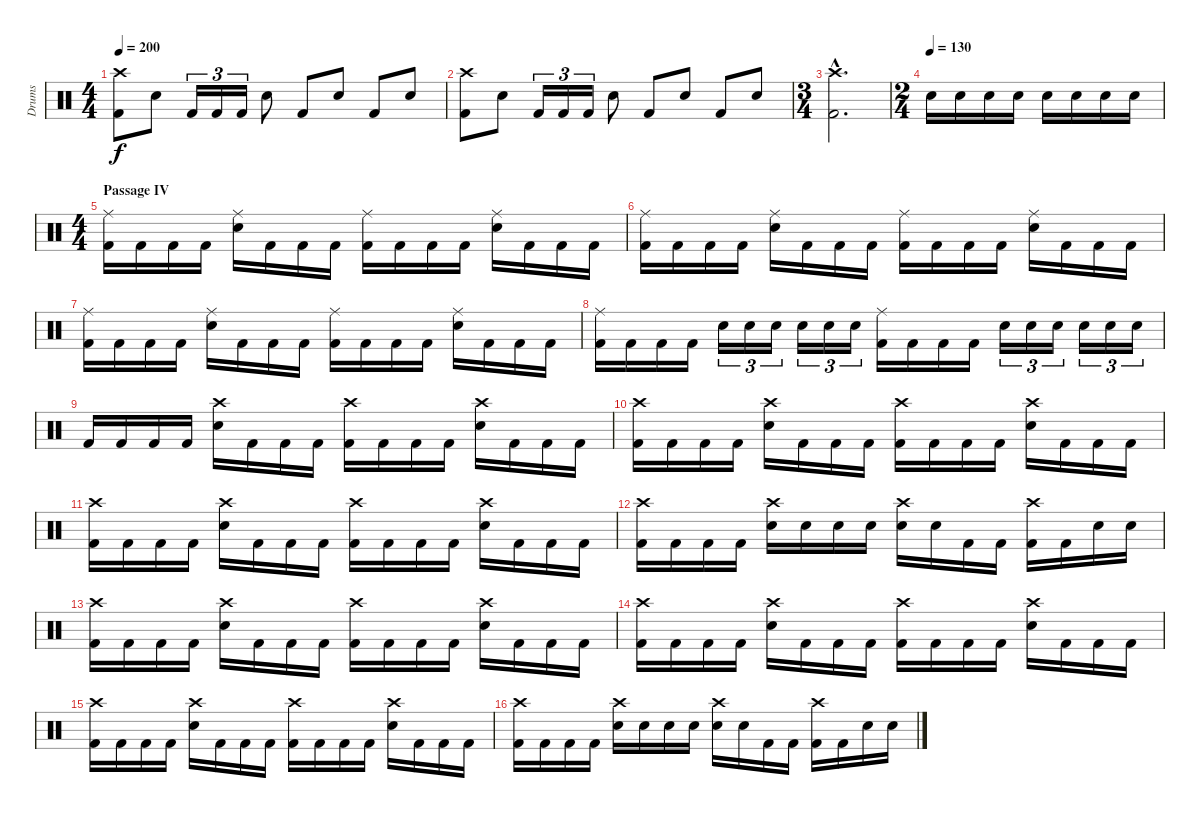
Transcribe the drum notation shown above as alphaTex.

\track ("Drums" "Drums") {instrument percussion}
\staff {score}
\articulation defaults
\ts (4 4)
\tempo 200
\clef neutral
\ks c
("Crash high (hit)" "Kick (hit) 2").8{dy f} "Electric Snare (hit)".8 "Kick (hit) 2".16{tu (3 2)} "Kick (hit) 2".16{tu (3 2)} "Kick (hit) 2".16{tu (3 2)} "Electric Snare (hit)".8 "Kick (hit) 2".8 "Electric Snare (hit)".8 "Kick (hit) 2".8 "Electric Snare (hit)".8 |
("Crash high (hit)" "Kick (hit) 2").8 "Electric Snare (hit)".8 "Kick (hit) 2".16{tu (3 2)} "Kick (hit) 2".16{tu (3 2)} "Kick (hit) 2".16{tu (3 2)} "Electric Snare (hit)".8 "Kick (hit) 2".8 "Electric Snare (hit)".8 "Kick (hit) 2".8 "Electric Snare (hit)".8 |
\ts (3 4)
("Crash high (hit)"{hac} "Kick (hit) 2"{hac}).2{d} |
\ts (2 4)
\tempo (130)
"Electric Snare (hit)".16 "Electric Snare (hit)".16 "Electric Snare (hit)".16 "Electric Snare (hit)".16 "Electric Snare (hit)".16 "Electric Snare (hit)".16 "Electric Snare (hit)".16 "Electric Snare (hit)".16 |
\ts (4 4)
\section ("" "Passage IV")
("Ride (middle)" "Kick (hit) 2").16 "Kick (hit) 2".16 "Kick (hit) 2".16 "Kick (hit) 2".16 ("Ride (middle)" "Electric Snare (hit)").16 "Kick (hit) 2".16 "Kick (hit) 2".16 "Kick (hit) 2".16 ("Ride (middle)" "Kick (hit) 2").16 "Kick (hit) 2".16 "Kick (hit) 2".16 "Kick (hit) 2".16 ("Ride (middle)" "Electric Snare (hit)").16 "Kick (hit) 2".16 "Kick (hit) 2".16 "Kick (hit) 2".16 |
("Ride (middle)" "Kick (hit) 2").16 "Kick (hit) 2".16 "Kick (hit) 2".16 "Kick (hit) 2".16 ("Ride (middle)" "Electric Snare (hit)").16 "Kick (hit) 2".16 "Kick (hit) 2".16 "Kick (hit) 2".16 ("Ride (middle)" "Kick (hit) 2").16 "Kick (hit) 2".16 "Kick (hit) 2".16 "Kick (hit) 2".16 ("Ride (middle)" "Electric Snare (hit)").16 "Kick (hit) 2".16 "Kick (hit) 2".16 "Kick (hit) 2".16 |
("Ride (middle)" "Kick (hit) 2").16 "Kick (hit) 2".16 "Kick (hit) 2".16 "Kick (hit) 2".16 ("Ride (middle)" "Electric Snare (hit)").16 "Kick (hit) 2".16 "Kick (hit) 2".16 "Kick (hit) 2".16 ("Ride (middle)" "Kick (hit) 2").16 "Kick (hit) 2".16 "Kick (hit) 2".16 "Kick (hit) 2".16 ("Ride (middle)" "Electric Snare (hit)").16 "Kick (hit) 2".16 "Kick (hit) 2".16 "Kick (hit) 2".16 |
("Ride (middle)" "Kick (hit) 2").16 "Kick (hit) 2".16 "Kick (hit) 2".16 "Kick (hit) 2".16 "Electric Snare (hit)".16{tu (3 2)} "Electric Snare (hit)".16{tu (3 2)} "Electric Snare (hit)".16{tu (3 2)} "Electric Snare (hit)".16{tu (3 2)} "Electric Snare (hit)".16{tu (3 2)} "Electric Snare (hit)".16{tu (3 2)} ("Ride (middle)" "Kick (hit) 2").16 "Kick (hit) 2".16 "Kick (hit) 2".16 "Kick (hit) 2".16 "Electric Snare (hit)".16{tu (3 2)} "Electric Snare (hit)".16{tu (3 2)} "Electric Snare (hit)".16{tu (3 2)} "Electric Snare (hit)".16{tu (3 2)} "Electric Snare (hit)".16{tu (3 2)} "Electric Snare (hit)".16{tu (3 2)} |
"Kick (hit) 2".16 "Kick (hit) 2".16 "Kick (hit) 2".16 "Kick (hit) 2".16 ("Crash high (hit)" "Electric Snare (hit)").16 "Kick (hit) 2".16 "Kick (hit) 2".16 "Kick (hit) 2".16 ("Crash high (hit)" "Kick (hit) 2").16 "Kick (hit) 2".16 "Kick (hit) 2".16 "Kick (hit) 2".16 ("Crash high (hit)" "Electric Snare (hit)").16 "Kick (hit) 2".16 "Kick (hit) 2".16 "Kick (hit) 2".16 |
("Crash high (hit)" "Kick (hit) 2").16 "Kick (hit) 2".16 "Kick (hit) 2".16 "Kick (hit) 2".16 ("Crash high (hit)" "Electric Snare (hit)").16 "Kick (hit) 2".16 "Kick (hit) 2".16 "Kick (hit) 2".16 ("Crash high (hit)" "Kick (hit) 2").16 "Kick (hit) 2".16 "Kick (hit) 2".16 "Kick (hit) 2".16 ("Crash high (hit)" "Electric Snare (hit)").16 "Kick (hit) 2".16 "Kick (hit) 2".16 "Kick (hit) 2".16 |
("Crash high (hit)" "Kick (hit) 2").16 "Kick (hit) 2".16 "Kick (hit) 2".16 "Kick (hit) 2".16 ("Crash high (hit)" "Electric Snare (hit)").16 "Kick (hit) 2".16 "Kick (hit) 2".16 "Kick (hit) 2".16 ("Crash high (hit)" "Kick (hit) 2").16 "Kick (hit) 2".16 "Kick (hit) 2".16 "Kick (hit) 2".16 ("Crash high (hit)" "Electric Snare (hit)").16 "Kick (hit) 2".16 "Kick (hit) 2".16 "Kick (hit) 2".16 |
("Crash high (hit)" "Kick (hit) 2").16 "Kick (hit) 2".16 "Kick (hit) 2".16 "Kick (hit) 2".16 ("Crash high (hit)" "Electric Snare (hit)").16 "Electric Snare (hit)".16 "Electric Snare (hit)".16 "Electric Snare (hit)".16 ("Crash high (hit)" "Electric Snare (hit)").16 "Electric Snare (hit)".16 "Kick (hit) 2".16 "Kick (hit) 2".16 ("Crash high (hit)" "Kick (hit) 2").16 "Kick (hit) 2".16 "Electric Snare (hit)".16 "Electric Snare (hit)".16 |
("Crash high (hit)" "Kick (hit) 2").16 "Kick (hit) 2".16 "Kick (hit) 2".16 "Kick (hit) 2".16 ("Crash high (hit)" "Electric Snare (hit)").16 "Kick (hit) 2".16 "Kick (hit) 2".16 "Kick (hit) 2".16 ("Crash high (hit)" "Kick (hit) 2").16 "Kick (hit) 2".16 "Kick (hit) 2".16 "Kick (hit) 2".16 ("Crash high (hit)" "Electric Snare (hit)").16 "Kick (hit) 2".16 "Kick (hit) 2".16 "Kick (hit) 2".16 |
("Crash high (hit)" "Kick (hit) 2").16 "Kick (hit) 2".16 "Kick (hit) 2".16 "Kick (hit) 2".16 ("Crash high (hit)" "Electric Snare (hit)").16 "Kick (hit) 2".16 "Kick (hit) 2".16 "Kick (hit) 2".16 ("Crash high (hit)" "Kick (hit) 2").16 "Kick (hit) 2".16 "Kick (hit) 2".16 "Kick (hit) 2".16 ("Crash high (hit)" "Electric Snare (hit)").16 "Kick (hit) 2".16 "Kick (hit) 2".16 "Kick (hit) 2".16 |
("Crash high (hit)" "Kick (hit) 2").16 "Kick (hit) 2".16 "Kick (hit) 2".16 "Kick (hit) 2".16 ("Crash high (hit)" "Electric Snare (hit)").16 "Kick (hit) 2".16 "Kick (hit) 2".16 "Kick (hit) 2".16 ("Crash high (hit)" "Kick (hit) 2").16 "Kick (hit) 2".16 "Kick (hit) 2".16 "Kick (hit) 2".16 ("Crash high (hit)" "Electric Snare (hit)").16 "Kick (hit) 2".16 "Kick (hit) 2".16 "Kick (hit) 2".16 |
("Crash high (hit)" "Kick (hit) 2").16 "Kick (hit) 2".16 "Kick (hit) 2".16 "Kick (hit) 2".16 ("Crash high (hit)" "Electric Snare (hit)").16 "Electric Snare (hit)".16 "Electric Snare (hit)".16 "Electric Snare (hit)".16 ("Crash high (hit)" "Electric Snare (hit)").16 "Electric Snare (hit)".16 "Kick (hit) 2".16 "Kick (hit) 2".16 ("Crash high (hit)" "Kick (hit) 2").16 "Kick (hit) 2".16 "Electric Snare (hit)".16 "Electric Snare (hit)".16
